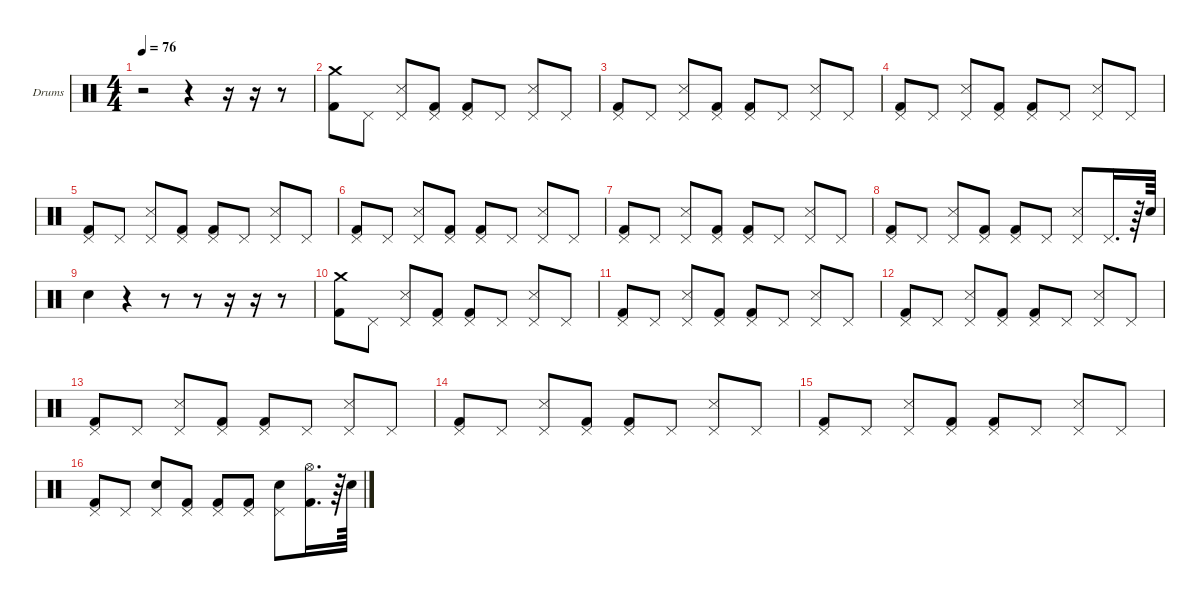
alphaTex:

\hideDynamics
\bracketExtendMode nobrackets
\firstSystemTrackNameOrientation horizontal
\otherSystemsTrackNameOrientation horizontal
\track ("Drumkit" "Drums") {instrument percussion}
\staff {score}
\articulation defaults
\ts (4 4)
\beaming (8 2 2 2 2)
\tempo 76
\clef neutral
\ks c
r.2{dy f beam Down} r.4{beam Down} r.16{beam Down} r.16{beam Down} r.8{beam Down} |
("Kick (hit) 2" "Crash medium (hit)").8{beam Down} "Pedal Hi-Hat (hit)".8{beam Down} ("Snare (side stick) 3" "Pedal Hi-Hat (hit)").8{beam Up} ("Kick (hit) 2" "Pedal Hi-Hat (hit)").8{beam Up} ("Kick (hit) 2" "Pedal Hi-Hat (hit)").8{beam Up} "Pedal Hi-Hat (hit)".8{beam Up} ("Snare (side stick) 3" "Pedal Hi-Hat (hit)").8{beam Up} "Pedal Hi-Hat (hit)".8{beam Up} |
("Kick (hit) 2" "Pedal Hi-Hat (hit)").8{beam Up} "Pedal Hi-Hat (hit)".8{beam Up} ("Snare (side stick) 3" "Pedal Hi-Hat (hit)").8{beam Up} ("Kick (hit) 2" "Pedal Hi-Hat (hit)").8{beam Up} ("Kick (hit) 2" "Pedal Hi-Hat (hit)").8{beam Up} "Pedal Hi-Hat (hit)".8{beam Up} ("Snare (side stick) 3" "Pedal Hi-Hat (hit)").8{beam Up} "Pedal Hi-Hat (hit)".8{beam Up} |
("Pedal Hi-Hat (hit)" "Kick (hit) 2").8{beam Up} "Pedal Hi-Hat (hit)".8{beam Up} ("Snare (side stick) 3" "Pedal Hi-Hat (hit)").8{beam Up} ("Kick (hit) 2" "Pedal Hi-Hat (hit)").8{beam Up} ("Kick (hit) 2" "Pedal Hi-Hat (hit)").8{beam Up} "Pedal Hi-Hat (hit)".8{beam Up} ("Snare (side stick) 3" "Pedal Hi-Hat (hit)").8{beam Up} "Pedal Hi-Hat (hit)".8{beam Up} |
("Pedal Hi-Hat (hit)" "Kick (hit) 2").8{beam Up} "Pedal Hi-Hat (hit)".8{beam Up} ("Snare (side stick) 3" "Pedal Hi-Hat (hit)").8{beam Up} ("Kick (hit) 2" "Pedal Hi-Hat (hit)").8{beam Up} ("Kick (hit) 2" "Pedal Hi-Hat (hit)").8{beam Up} "Pedal Hi-Hat (hit)".8{beam Up} ("Snare (side stick) 3" "Pedal Hi-Hat (hit)").8{beam Up} "Pedal Hi-Hat (hit)".8{beam Up} |
("Pedal Hi-Hat (hit)" "Kick (hit) 2").8{beam Up} "Pedal Hi-Hat (hit)".8{beam Up} ("Snare (side stick) 3" "Pedal Hi-Hat (hit)").8{beam Up} ("Kick (hit) 2" "Pedal Hi-Hat (hit)").8{beam Up} ("Kick (hit) 2" "Pedal Hi-Hat (hit)").8{beam Up} "Pedal Hi-Hat (hit)".8{beam Up} ("Snare (side stick) 3" "Pedal Hi-Hat (hit)").8{beam Up} "Pedal Hi-Hat (hit)".8{beam Up} |
("Pedal Hi-Hat (hit)" "Kick (hit) 2").8{beam Up} "Pedal Hi-Hat (hit)".8{beam Up} ("Snare (side stick) 3" "Pedal Hi-Hat (hit)").8{beam Up} ("Kick (hit) 2" "Pedal Hi-Hat (hit)").8{beam Up} ("Kick (hit) 2" "Pedal Hi-Hat (hit)").8{beam Up} "Pedal Hi-Hat (hit)".8{beam Up} ("Snare (side stick) 3" "Pedal Hi-Hat (hit)").8{beam Up} "Pedal Hi-Hat (hit)".8{beam Up} |
("Pedal Hi-Hat (hit)" "Kick (hit) 2").8{beam Up} "Pedal Hi-Hat (hit)".8{beam Up} ("Snare (side stick) 3" "Pedal Hi-Hat (hit)").8{beam Up} ("Kick (hit) 2" "Pedal Hi-Hat (hit)").8{beam Up} ("Kick (hit) 2" "Pedal Hi-Hat (hit)").8{beam Up} "Pedal Hi-Hat (hit)".8{beam Up} ("Snare (side stick) 3" "Pedal Hi-Hat (hit)").8{beam Up} "Pedal Hi-Hat (hit)".16{d beam Up} r.64{beam Up} "Snare (hit) 2".64{beam Up} |
"Snare (hit) 2".4{beam Down} r.4{beam Down} r.8{beam Down} r.8{beam Down} r.16{beam Down} r.16{beam Down} r.8{beam Down} |
("Crash medium (hit)" "Kick (hit) 2").8{beam Down} "Pedal Hi-Hat (hit)".8{beam Down} ("Snare (side stick) 3" "Pedal Hi-Hat (hit)").8{beam Up} ("Kick (hit) 2" "Pedal Hi-Hat (hit)").8{beam Up} ("Kick (hit) 2" "Pedal Hi-Hat (hit)").8{beam Up} "Pedal Hi-Hat (hit)".8{beam Up} ("Snare (side stick) 3" "Pedal Hi-Hat (hit)").8{beam Up} "Pedal Hi-Hat (hit)".8{beam Up} |
("Kick (hit) 2" "Pedal Hi-Hat (hit)").8{beam Up} "Pedal Hi-Hat (hit)".8{beam Up} ("Snare (side stick) 3" "Pedal Hi-Hat (hit)").8{beam Up} ("Kick (hit) 2" "Pedal Hi-Hat (hit)").8{beam Up} ("Kick (hit) 2" "Pedal Hi-Hat (hit)").8{beam Up} "Pedal Hi-Hat (hit)".8{beam Up} ("Snare (side stick) 3" "Pedal Hi-Hat (hit)").8{beam Up} "Pedal Hi-Hat (hit)".8{beam Up} |
("Pedal Hi-Hat (hit)" "Kick (hit) 2").8{beam Up} "Pedal Hi-Hat (hit)".8{beam Up} ("Snare (side stick) 3" "Pedal Hi-Hat (hit)").8{beam Up} ("Kick (hit) 2" "Pedal Hi-Hat (hit)").8{beam Up} ("Kick (hit) 2" "Pedal Hi-Hat (hit)").8{beam Up} "Pedal Hi-Hat (hit)".8{beam Up} ("Snare (side stick) 3" "Pedal Hi-Hat (hit)").8{beam Up} "Pedal Hi-Hat (hit)".8{beam Up} |
("Pedal Hi-Hat (hit)" "Kick (hit) 2").8{beam Up} "Pedal Hi-Hat (hit)".8{beam Up} ("Snare (side stick) 3" "Pedal Hi-Hat (hit)").8{beam Up} ("Kick (hit) 2" "Pedal Hi-Hat (hit)").8{beam Up} ("Kick (hit) 2" "Pedal Hi-Hat (hit)").8{beam Up} "Pedal Hi-Hat (hit)".8{beam Up} ("Snare (side stick) 3" "Pedal Hi-Hat (hit)").8{beam Up} "Pedal Hi-Hat (hit)".8{beam Up} |
("Pedal Hi-Hat (hit)" "Kick (hit) 2").8{beam Up} "Pedal Hi-Hat (hit)".8{beam Up} ("Snare (side stick) 3" "Pedal Hi-Hat (hit)").8{beam Up} ("Kick (hit) 2" "Pedal Hi-Hat (hit)").8{beam Up} ("Kick (hit) 2" "Pedal Hi-Hat (hit)").8{beam Up} "Pedal Hi-Hat (hit)".8{beam Up} ("Snare (side stick) 3" "Pedal Hi-Hat (hit)").8{beam Up} "Pedal Hi-Hat (hit)".8{beam Up} |
("Pedal Hi-Hat (hit)" "Kick (hit) 2").8{beam Up} "Pedal Hi-Hat (hit)".8{beam Up} ("Snare (side stick) 3" "Pedal Hi-Hat (hit)").8{beam Up} ("Kick (hit) 2" "Pedal Hi-Hat (hit)").8{beam Up} ("Kick (hit) 2" "Pedal Hi-Hat (hit)").8{beam Up} "Pedal Hi-Hat (hit)".8{beam Up} ("Snare (side stick) 3" "Pedal Hi-Hat (hit)").8{beam Up} "Pedal Hi-Hat (hit)".8{beam Up} |
("Kick (hit) 2" "Pedal Hi-Hat (hit)").8{beam Up} "Pedal Hi-Hat (hit)".8{beam Up} ("Pedal Hi-Hat (hit)" "Snare (hit) 2").8{beam Up} ("Kick (hit) 2" "Pedal Hi-Hat (hit)").8{beam Up} ("Pedal Hi-Hat (hit)" "Kick (hit) 2").8{beam Up} ("Pedal Hi-Hat (hit)" "Kick (hit) 2").8{beam Up} ("Pedal Hi-Hat (hit)" "Snare (hit) 2").8{beam Down} ("Hi-Hat (open)" "Kick (hit) 2").16{d beam Down} r.64{beam Down} "Snare (hit) 2".64{beam Down}
